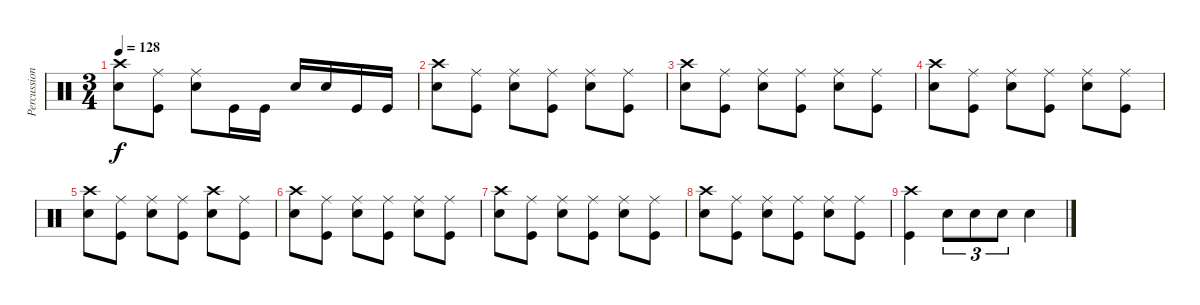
\track ("Percussioni" "Percussion") {instrument percussion}
\staff {score}
\articulation defaults
\ts (3 4)
\tempo 128
\clef neutral
\ks c
("Crash high (hit)" "Snare (hit) 2").8{dy f} ("Ride (middle)" "Kick (hit)").8 ("Ride (middle)" "Snare (hit) 2").8 "Kick (hit)".16 "Kick (hit)".16 "Snare (hit) 2".16 "Snare (hit) 2".16 "Kick (hit)".16 "Kick (hit)".16 |
("Crash high (hit)" "Snare (hit) 2").8 ("Ride (middle)" "Kick (hit)").8 ("Ride (middle)" "Snare (hit) 2").8 ("Kick (hit)" "Ride (middle)").8 ("Ride (middle)" "Snare (hit) 2").8 ("Kick (hit)" "Ride (middle)").8 |
("Crash high (hit)" "Snare (hit) 2").8 ("Ride (middle)" "Kick (hit)").8 ("Ride (middle)" "Snare (hit) 2").8 ("Kick (hit)" "Ride (middle)").8 ("Ride (middle)" "Snare (hit) 2").8 ("Kick (hit)" "Ride (middle)").8 |
("Crash high (hit)" "Snare (hit) 2").8 ("Ride (middle)" "Kick (hit)").8 ("Ride (middle)" "Snare (hit) 2").8 ("Kick (hit)" "Ride (middle)").8 ("Ride (middle)" "Snare (hit) 2").8 ("Kick (hit)" "Ride (middle)").8 |
("Crash high (hit)" "Snare (hit) 2").8 ("Ride (middle)" "Kick (hit)").8 ("Ride (middle)" "Snare (hit) 2").8 ("Kick (hit)" "Ride (middle)").8 ("Crash high (hit)" "Snare (hit) 2").8 ("Kick (hit)" "Ride (middle)").8 |
("Crash high (hit)" "Snare (hit) 2").8 ("Ride (middle)" "Kick (hit)").8 ("Ride (middle)" "Snare (hit) 2").8 ("Kick (hit)" "Ride (middle)").8 ("Ride (middle)" "Snare (hit) 2").8 ("Kick (hit)" "Ride (middle)").8 |
("Crash high (hit)" "Snare (hit) 2").8 ("Ride (middle)" "Kick (hit)").8 ("Ride (middle)" "Snare (hit) 2").8 ("Kick (hit)" "Ride (middle)").8 ("Ride (middle)" "Snare (hit) 2").8 ("Kick (hit)" "Ride (middle)").8 |
("Crash high (hit)" "Snare (hit) 2").8 ("Ride (middle)" "Kick (hit)").8 ("Ride (middle)" "Snare (hit) 2").8 ("Kick (hit)" "Ride (middle)").8 ("Ride (middle)" "Snare (hit) 2").8 ("Kick (hit)" "Ride (middle)").8 |
("Kick (hit)" "Crash high (hit)").4 "Snare (hit) 2".8{tu (3 2)} "Snare (hit) 2".8{tu (3 2)} "Snare (hit) 2".8{tu (3 2)} "Snare (hit) 2".4
